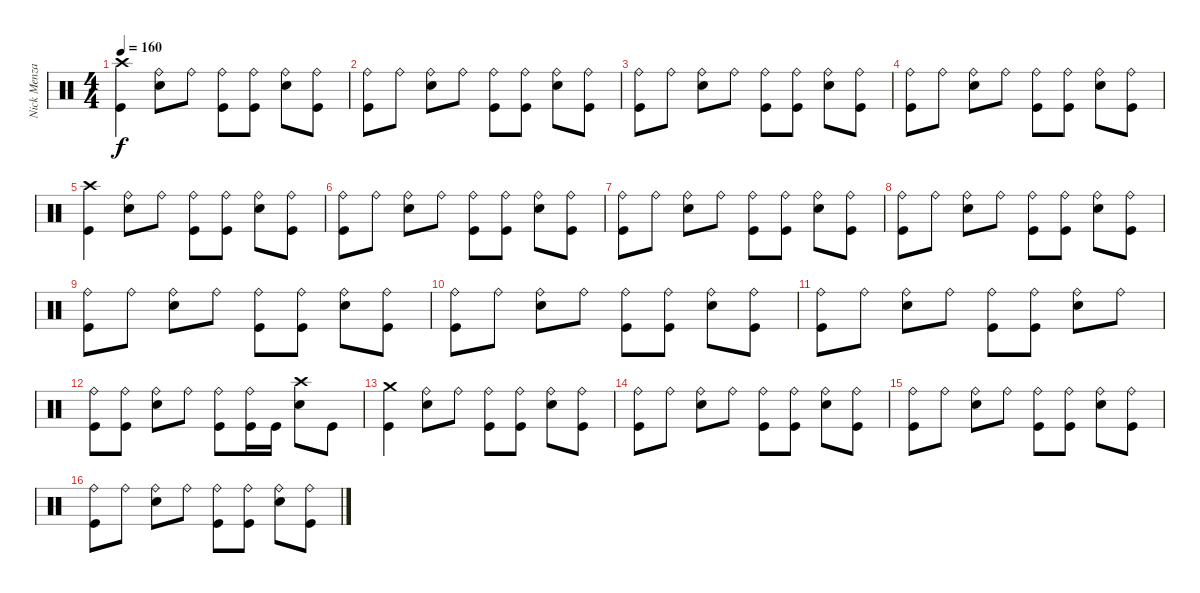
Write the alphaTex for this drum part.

\track ("Nick Menza" "Nick Menza") {instrument percussion}
\staff {score}
\articulation defaults
\ts (4 4)
\tempo 160
\clef neutral
\ks c
("Crash high (hit)" "Kick (hit)").4{dy f} ("Ride (bell)" "Snare (hit) 2").8 "Ride (bell)".8 ("Ride (bell)" "Kick (hit)").8 ("Ride (bell)" "Kick (hit)").8 ("Ride (bell)" "Snare (hit) 2").8 ("Ride (bell)" "Kick (hit)").8 |
("Ride (bell)" "Kick (hit)").8 "Ride (bell)".8 ("Ride (bell)" "Snare (hit) 2").8 "Ride (bell)".8 ("Ride (bell)" "Kick (hit)").8 ("Ride (bell)" "Kick (hit)").8 ("Ride (bell)" "Snare (hit) 2").8 ("Ride (bell)" "Kick (hit)").8 |
("Ride (bell)" "Kick (hit)").8 "Ride (bell)".8 ("Ride (bell)" "Snare (hit) 2").8 "Ride (bell)".8 ("Ride (bell)" "Kick (hit)").8 ("Ride (bell)" "Kick (hit)").8 ("Ride (bell)" "Snare (hit) 2").8 ("Ride (bell)" "Kick (hit)").8 |
("Ride (bell)" "Kick (hit)").8 "Ride (bell)".8 ("Ride (bell)" "Snare (hit) 2").8 "Ride (bell)".8 ("Ride (bell)" "Kick (hit)").8 ("Ride (bell)" "Kick (hit)").8 ("Ride (bell)" "Snare (hit) 2").8 ("Ride (bell)" "Kick (hit)").8 |
("Crash high (hit)" "Kick (hit)").4 ("Ride (bell)" "Snare (hit) 2").8 "Ride (bell)".8 ("Ride (bell)" "Kick (hit)").8 ("Ride (bell)" "Kick (hit)").8 ("Ride (bell)" "Snare (hit) 2").8 ("Ride (bell)" "Kick (hit)").8 |
("Ride (bell)" "Kick (hit)").8 "Ride (bell)".8 ("Ride (bell)" "Snare (hit) 2").8 "Ride (bell)".8 ("Ride (bell)" "Kick (hit)").8 ("Ride (bell)" "Kick (hit)").8 ("Ride (bell)" "Snare (hit) 2").8 ("Ride (bell)" "Kick (hit)").8 |
("Ride (bell)" "Kick (hit)").8 "Ride (bell)".8 ("Ride (bell)" "Snare (hit) 2").8 "Ride (bell)".8 ("Ride (bell)" "Kick (hit)").8 ("Ride (bell)" "Kick (hit)").8 ("Ride (bell)" "Snare (hit) 2").8 ("Ride (bell)" "Kick (hit)").8 |
("Ride (bell)" "Kick (hit)").8 "Ride (bell)".8 ("Ride (bell)" "Snare (hit) 2").8 "Ride (bell)".8 ("Ride (bell)" "Kick (hit)").8 ("Ride (bell)" "Kick (hit)").8 ("Ride (bell)" "Snare (hit) 2").8 ("Ride (bell)" "Kick (hit)").8 |
("Ride (bell)" "Kick (hit)").8 "Ride (bell)".8 ("Ride (bell)" "Snare (hit) 2").8 "Ride (bell)".8 ("Ride (bell)" "Kick (hit)").8 ("Ride (bell)" "Kick (hit)").8 ("Ride (bell)" "Snare (hit) 2").8 ("Ride (bell)" "Kick (hit)").8 |
("Ride (bell)" "Kick (hit)").8 "Ride (bell)".8 ("Ride (bell)" "Snare (hit) 2").8 "Ride (bell)".8 ("Ride (bell)" "Kick (hit)").8 ("Ride (bell)" "Kick (hit)").8 ("Ride (bell)" "Snare (hit) 2").8 ("Ride (bell)" "Kick (hit)").8 |
("Ride (bell)" "Kick (hit)").8 "Ride (bell)".8 ("Ride (bell)" "Snare (hit) 2").8 "Ride (bell)".8 ("Ride (bell)" "Kick (hit)").8 ("Ride (bell)" "Kick (hit)").8 ("Ride (bell)" "Snare (hit) 2").8 "Ride (bell)".8 |
("Ride (bell)" "Kick (hit)").8 ("Ride (bell)" "Kick (hit)").8 ("Ride (bell)" "Snare (hit) 2").8 "Ride (bell)".8 ("Ride (bell)" "Kick (hit)").8 ("Ride (bell)" "Kick (hit)").16 "Kick (hit)".16 ("Crash high (hit)" "Snare (hit) 2").8 "Kick (hit)".8 |
("Crash medium (hit)" "Kick (hit)").4 ("Ride (bell)" "Snare (hit) 2").8 "Ride (bell)".8 ("Ride (bell)" "Kick (hit)").8 ("Ride (bell)" "Kick (hit)").8 ("Ride (bell)" "Snare (hit) 2").8 ("Ride (bell)" "Kick (hit)").8 |
("Ride (bell)" "Kick (hit)").8 "Ride (bell)".8 ("Ride (bell)" "Snare (hit) 2").8 "Ride (bell)".8 ("Ride (bell)" "Kick (hit)").8 ("Ride (bell)" "Kick (hit)").8 ("Ride (bell)" "Snare (hit) 2").8 ("Ride (bell)" "Kick (hit)").8 |
("Ride (bell)" "Kick (hit)").8 "Ride (bell)".8 ("Ride (bell)" "Snare (hit) 2").8 "Ride (bell)".8 ("Ride (bell)" "Kick (hit)").8 ("Ride (bell)" "Kick (hit)").8 ("Ride (bell)" "Snare (hit) 2").8 ("Ride (bell)" "Kick (hit)").8 |
("Ride (bell)" "Kick (hit)").8 "Ride (bell)".8 ("Ride (bell)" "Snare (hit) 2").8 "Ride (bell)".8 ("Ride (bell)" "Kick (hit)").8 ("Ride (bell)" "Kick (hit)").8 ("Ride (bell)" "Snare (hit) 2").8 ("Ride (bell)" "Kick (hit)").8
